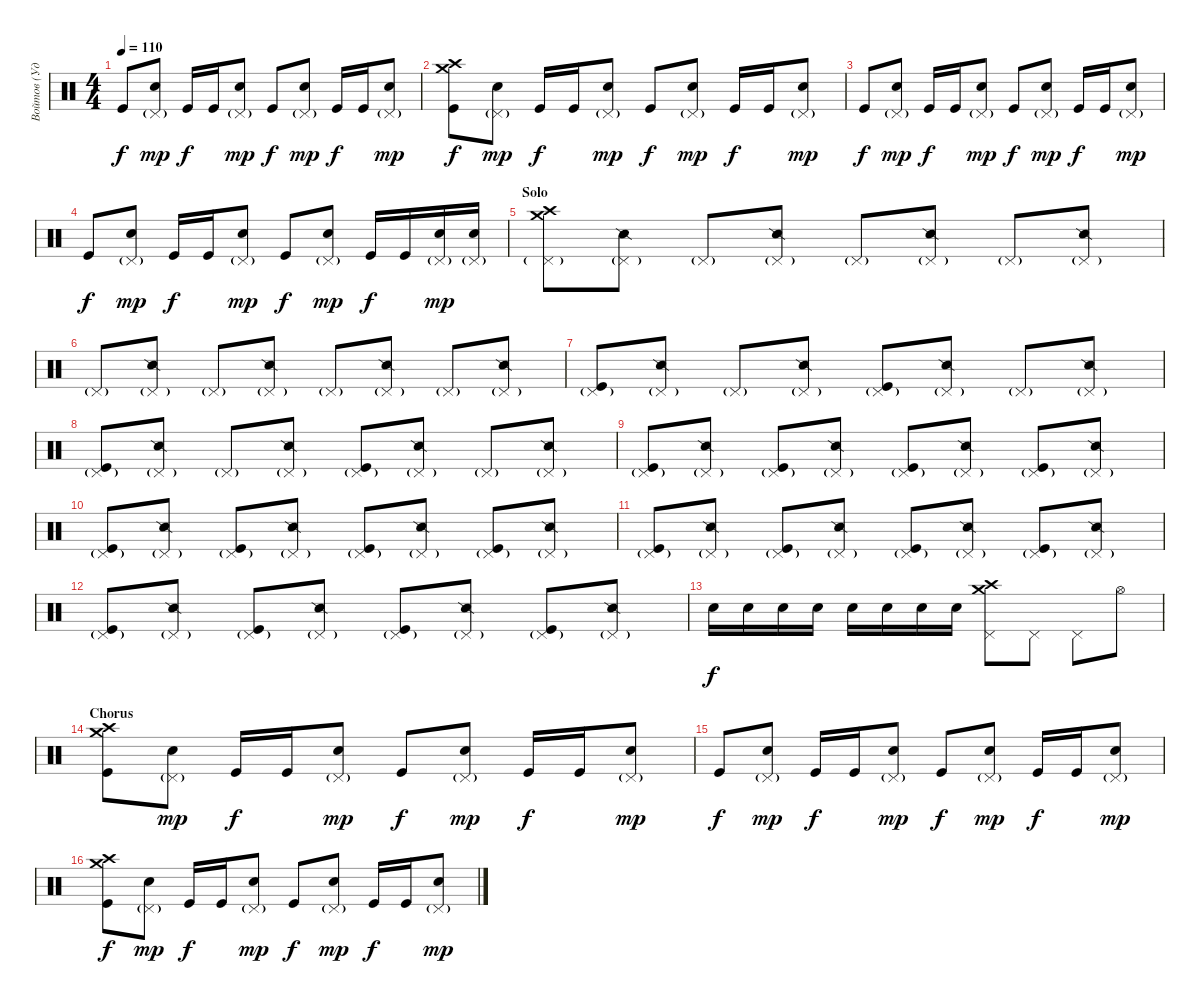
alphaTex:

\track ("Войтов (Ударные)" "Войтов (Уд") {instrument percussion}
\staff {score}
\articulation defaults
\ts (4 4)
\tempo 110
\clef neutral
\ks c "Kick (hit)".8{dy f}
("Pedal Hi-Hat (hit)"{g} "Electric Snare (hit)").8{dy mp} "Kick (hit)".16{dy f} "Kick (hit)".16 ("Pedal Hi-Hat (hit)"{g} "Electric Snare (hit)").8{dy mp} "Kick (hit)".8{dy f} ("Pedal Hi-Hat (hit)"{g} "Electric Snare (hit)").8{dy mp} "Kick (hit)".16{dy f} "Kick (hit)".16 ("Pedal Hi-Hat (hit)"{g} "Electric Snare (hit)").8{dy mp} |
("Crash medium (hit)" "Crash high (hit)" "Kick (hit)").8{dy f} ("Pedal Hi-Hat (hit)"{g} "Electric Snare (hit)").8{dy mp} "Kick (hit)".16{dy f} "Kick (hit)".16 ("Pedal Hi-Hat (hit)"{g} "Electric Snare (hit)").8{dy mp} "Kick (hit)".8{dy f} ("Pedal Hi-Hat (hit)"{g} "Electric Snare (hit)").8{dy mp} "Kick (hit)".16{dy f} "Kick (hit)".16 ("Pedal Hi-Hat (hit)"{g} "Electric Snare (hit)").8{dy mp} |
"Kick (hit)".8{dy f} ("Pedal Hi-Hat (hit)"{g} "Electric Snare (hit)").8{dy mp} "Kick (hit)".16{dy f} "Kick (hit)".16 ("Pedal Hi-Hat (hit)"{g} "Electric Snare (hit)").8{dy mp} "Kick (hit)".8{dy f} ("Pedal Hi-Hat (hit)"{g} "Electric Snare (hit)").8{dy mp} "Kick (hit)".16{dy f} "Kick (hit)".16 ("Pedal Hi-Hat (hit)"{g} "Electric Snare (hit)").8{dy mp} |
"Kick (hit)".8{dy f} ("Pedal Hi-Hat (hit)"{g} "Electric Snare (hit)").8{dy mp} "Kick (hit)".16{dy f} "Kick (hit)".16 ("Pedal Hi-Hat (hit)"{g} "Electric Snare (hit)").8{dy mp} "Kick (hit)".8{dy f} ("Pedal Hi-Hat (hit)"{g} "Electric Snare (hit)").8{dy mp} "Kick (hit)".16{dy f} "Kick (hit)".16 ("Pedal Hi-Hat (hit)"{g} "Electric Snare (hit)").16{dy mp} ("Pedal Hi-Hat (hit)"{g} "Electric Snare (hit)").16 |
\section ("" "Solo")
("Crash medium (hit)" "Crash high (hit)" "Pedal Hi-Hat (hit)"{g}).8 ("Snare (side stick) 2" "Pedal Hi-Hat (hit)"{g}).8 "Pedal Hi-Hat (hit)"{g}.8 ("Snare (side stick) 2" "Pedal Hi-Hat (hit)"{g}).8 "Pedal Hi-Hat (hit)"{g}.8 ("Snare (side stick) 2" "Pedal Hi-Hat (hit)"{g}).8 "Pedal Hi-Hat (hit)"{g}.8 ("Snare (side stick) 2" "Pedal Hi-Hat (hit)"{g}).8 |
"Pedal Hi-Hat (hit)"{g}.8 ("Snare (side stick) 2" "Pedal Hi-Hat (hit)"{g}).8 "Pedal Hi-Hat (hit)"{g}.8 ("Snare (side stick) 2" "Pedal Hi-Hat (hit)"{g}).8 "Pedal Hi-Hat (hit)"{g}.8 ("Snare (side stick) 2" "Pedal Hi-Hat (hit)"{g}).8 "Pedal Hi-Hat (hit)"{g}.8 ("Snare (side stick) 2" "Pedal Hi-Hat (hit)"{g}).8 |
("Kick (hit)" "Pedal Hi-Hat (hit)"{g}).8 ("Snare (side stick) 2" "Pedal Hi-Hat (hit)"{g}).8 "Pedal Hi-Hat (hit)"{g}.8 ("Snare (side stick) 2" "Pedal Hi-Hat (hit)"{g}).8 ("Kick (hit)" "Pedal Hi-Hat (hit)"{g}).8 ("Snare (side stick) 2" "Pedal Hi-Hat (hit)"{g}).8 "Pedal Hi-Hat (hit)"{g}.8 ("Snare (side stick) 2" "Pedal Hi-Hat (hit)"{g}).8 |
("Kick (hit)" "Pedal Hi-Hat (hit)"{g}).8 ("Snare (side stick) 2" "Pedal Hi-Hat (hit)"{g}).8 "Pedal Hi-Hat (hit)"{g}.8 ("Snare (side stick) 2" "Pedal Hi-Hat (hit)"{g}).8 ("Kick (hit)" "Pedal Hi-Hat (hit)"{g}).8 ("Snare (side stick) 2" "Pedal Hi-Hat (hit)"{g}).8 "Pedal Hi-Hat (hit)"{g}.8 ("Snare (side stick) 2" "Pedal Hi-Hat (hit)"{g}).8 |
("Kick (hit)" "Pedal Hi-Hat (hit)"{g}).8 ("Snare (side stick) 2" "Pedal Hi-Hat (hit)"{g}).8 ("Kick (hit)" "Pedal Hi-Hat (hit)"{g}).8 ("Snare (side stick) 2" "Pedal Hi-Hat (hit)"{g}).8 ("Kick (hit)" "Pedal Hi-Hat (hit)"{g}).8 ("Snare (side stick) 2" "Pedal Hi-Hat (hit)"{g}).8 ("Kick (hit)" "Pedal Hi-Hat (hit)"{g}).8 ("Snare (side stick) 2" "Pedal Hi-Hat (hit)"{g}).8 |
("Kick (hit)" "Pedal Hi-Hat (hit)"{g}).8 ("Snare (side stick) 2" "Pedal Hi-Hat (hit)"{g}).8 ("Kick (hit)" "Pedal Hi-Hat (hit)"{g}).8 ("Snare (side stick) 2" "Pedal Hi-Hat (hit)"{g}).8 ("Kick (hit)" "Pedal Hi-Hat (hit)"{g}).8 ("Snare (side stick) 2" "Pedal Hi-Hat (hit)"{g}).8 ("Kick (hit)" "Pedal Hi-Hat (hit)"{g}).8 ("Snare (side stick) 2" "Pedal Hi-Hat (hit)"{g}).8 |
("Kick (hit)" "Pedal Hi-Hat (hit)"{g}).8 ("Snare (side stick) 2" "Pedal Hi-Hat (hit)"{g}).8 ("Kick (hit)" "Pedal Hi-Hat (hit)"{g}).8 ("Snare (side stick) 2" "Pedal Hi-Hat (hit)"{g}).8 ("Kick (hit)" "Pedal Hi-Hat (hit)"{g}).8 ("Snare (side stick) 2" "Pedal Hi-Hat (hit)"{g}).8 ("Kick (hit)" "Pedal Hi-Hat (hit)"{g}).8 ("Snare (side stick) 2" "Pedal Hi-Hat (hit)"{g}).8 |
("Kick (hit)" "Pedal Hi-Hat (hit)"{g}).8 ("Snare (side stick) 2" "Pedal Hi-Hat (hit)"{g}).8 ("Kick (hit)" "Pedal Hi-Hat (hit)"{g}).8 ("Snare (side stick) 2" "Pedal Hi-Hat (hit)"{g}).8 ("Kick (hit)" "Pedal Hi-Hat (hit)"{g}).8 ("Snare (side stick) 2" "Pedal Hi-Hat (hit)"{g}).8 ("Kick (hit)" "Pedal Hi-Hat (hit)"{g}).8 ("Snare (side stick) 2" "Pedal Hi-Hat (hit)"{g}).8 |
"Electric Snare (hit)".16{dy f} "Electric Snare (hit)".16 "Electric Snare (hit)".16 "Electric Snare (hit)".16 "Electric Snare (hit)".16 "Electric Snare (hit)".16 "Electric Snare (hit)".16 "Electric Snare (hit)".16 ("Crash medium (hit)" "Crash high (hit)" "Pedal Hi-Hat (hit)").8 "Pedal Hi-Hat (hit)".8 "Pedal Hi-Hat (hit)".8 "Hi-Hat (open)".8 |
\section ("" "Chorus")
("Crash medium (hit)" "Crash high (hit)" "Kick (hit)").8 ("Pedal Hi-Hat (hit)"{g} "Electric Snare (hit)").8{dy mp} "Kick (hit)".16{dy f} "Kick (hit)".16 ("Pedal Hi-Hat (hit)"{g} "Electric Snare (hit)").8{dy mp} "Kick (hit)".8{dy f} ("Pedal Hi-Hat (hit)"{g} "Electric Snare (hit)").8{dy mp} "Kick (hit)".16{dy f} "Kick (hit)".16 ("Pedal Hi-Hat (hit)"{g} "Electric Snare (hit)").8{dy mp} |
"Kick (hit)".8{dy f} ("Pedal Hi-Hat (hit)"{g} "Electric Snare (hit)").8{dy mp} "Kick (hit)".16{dy f} "Kick (hit)".16 ("Pedal Hi-Hat (hit)"{g} "Electric Snare (hit)").8{dy mp} "Kick (hit)".8{dy f} ("Pedal Hi-Hat (hit)"{g} "Electric Snare (hit)").8{dy mp} "Kick (hit)".16{dy f} "Kick (hit)".16 ("Pedal Hi-Hat (hit)"{g} "Electric Snare (hit)").8{dy mp} |
("Crash medium (hit)" "Crash high (hit)" "Kick (hit)").8{dy f} ("Pedal Hi-Hat (hit)"{g} "Electric Snare (hit)").8{dy mp} "Kick (hit)".16{dy f} "Kick (hit)".16 ("Pedal Hi-Hat (hit)"{g} "Electric Snare (hit)").8{dy mp} "Kick (hit)".8{dy f} ("Pedal Hi-Hat (hit)"{g} "Electric Snare (hit)").8{dy mp} "Kick (hit)".16{dy f} "Kick (hit)".16 ("Pedal Hi-Hat (hit)"{g} "Electric Snare (hit)").8{dy mp}
